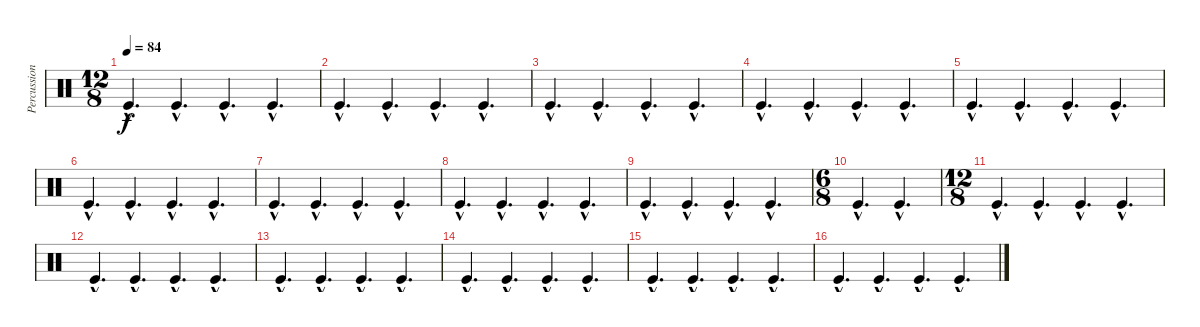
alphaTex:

\track ("Percussion" "Percussion") {instrument percussion}
\staff {score}
\articulation defaults
\ts (12 8)
\tempo 84
\clef neutral
\ks c "Kick (hit)"{hac}.4{d dy f} "Kick (hit)"{hac}.4{d} "Kick (hit)"{hac}.4{d} "Kick (hit)"{hac}.4{d}
|
"Kick (hit)"{hac}.4{d} "Kick (hit)"{hac}.4{d} "Kick (hit)"{hac}.4{d} "Kick (hit)"{hac}.4{d} |
"Kick (hit)"{hac}.4{d} "Kick (hit)"{hac}.4{d} "Kick (hit)"{hac}.4{d} "Kick (hit)"{hac}.4{d} |
"Kick (hit)"{hac}.4{d} "Kick (hit)"{hac}.4{d} "Kick (hit)"{hac}.4{d} "Kick (hit)"{hac}.4{d} |
"Kick (hit)"{hac}.4{d} "Kick (hit)"{hac}.4{d} "Kick (hit)"{hac}.4{d} "Kick (hit)"{hac}.4{d} |
"Kick (hit)"{hac}.4{d} "Kick (hit)"{hac}.4{d} "Kick (hit)"{hac}.4{d} "Kick (hit)"{hac}.4{d} |
"Kick (hit)"{hac}.4{d} "Kick (hit)"{hac}.4{d} "Kick (hit)"{hac}.4{d} "Kick (hit)"{hac}.4{d} |
"Kick (hit)"{hac}.4{d} "Kick (hit)"{hac}.4{d} "Kick (hit)"{hac}.4{d} "Kick (hit)"{hac}.4{d} |
"Kick (hit)"{hac}.4{d} "Kick (hit)"{hac}.4{d} "Kick (hit)"{hac}.4{d} "Kick (hit)"{hac}.4{d} |
\ts (6 8)
"Kick (hit)"{hac}.4{d} "Kick (hit)"{hac}.4{d} |
\ts (12 8)
"Kick (hit)"{hac}.4{d} "Kick (hit)"{hac}.4{d} "Kick (hit)"{hac}.4{d} "Kick (hit)"{hac}.4{d} |
"Kick (hit)"{hac}.4{d} "Kick (hit)"{hac}.4{d} "Kick (hit)"{hac}.4{d} "Kick (hit)"{hac}.4{d} |
"Kick (hit)"{hac}.4{d} "Kick (hit)"{hac}.4{d} "Kick (hit)"{hac}.4{d} "Kick (hit)"{hac}.4{d} |
"Kick (hit)"{hac}.4{d} "Kick (hit)"{hac}.4{d} "Kick (hit)"{hac}.4{d} "Kick (hit)"{hac}.4{d} |
"Kick (hit)"{hac}.4{d} "Kick (hit)"{hac}.4{d} "Kick (hit)"{hac}.4{d} "Kick (hit)"{hac}.4{d} |
"Kick (hit)"{hac}.4{d} "Kick (hit)"{hac}.4{d} "Kick (hit)"{hac}.4{d} "Kick (hit)"{hac}.4{d}
